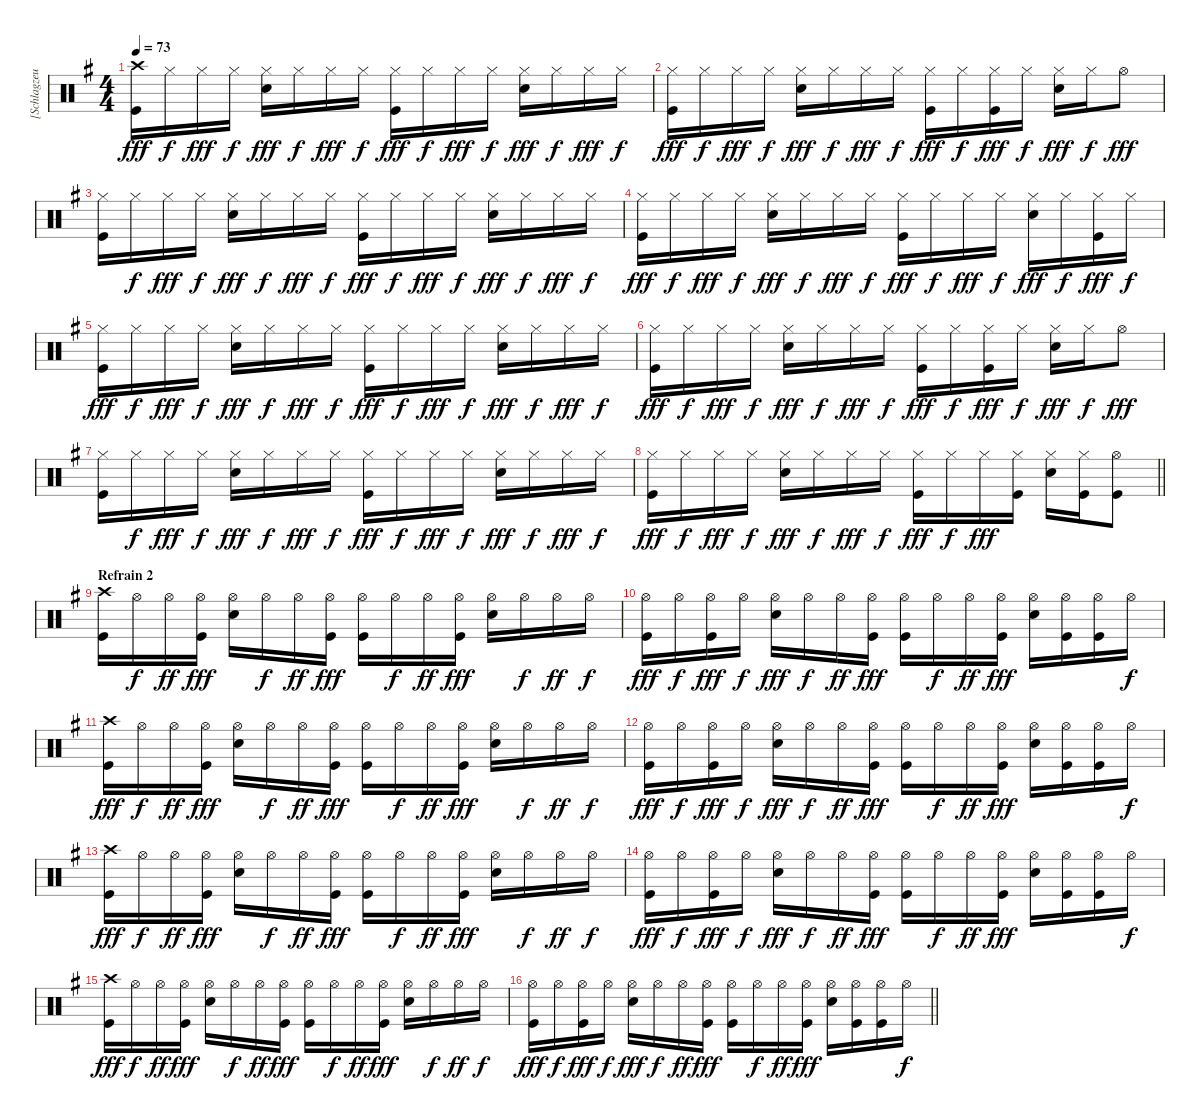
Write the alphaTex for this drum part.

\track ("[Schlagzeug]" "[Schlagzeu") {instrument percussion}
\staff {score}
\articulation defaults
\ts (4 4)
\tempo 73
\clef neutral
\ks eminor
("Crash high (hit)" "Kick (hit)").16{dy fff} "Hi-Hat (closed)".16{dy f} "Hi-Hat (closed)".16{dy fff} "Hi-Hat (closed)".16{dy f} ("Hi-Hat (closed)" "Electric Snare (hit)").16{dy fff} "Hi-Hat (closed)".16{dy f} "Hi-Hat (closed)".16{dy fff} "Hi-Hat (closed)".16{dy f} ("Hi-Hat (closed)" "Kick (hit)").16{dy fff} "Hi-Hat (closed)".16{dy f} "Hi-Hat (closed)".16{dy fff} "Hi-Hat (closed)".16{dy f} ("Hi-Hat (closed)" "Electric Snare (hit)").16{dy fff} "Hi-Hat (closed)".16{dy f} "Hi-Hat (closed)".16{dy fff} "Hi-Hat (closed)".16{dy f} |
("Hi-Hat (closed)" "Kick (hit)").16{dy fff} "Hi-Hat (closed)".16{dy f} "Hi-Hat (closed)".16{dy fff} "Hi-Hat (closed)".16{dy f} ("Hi-Hat (closed)" "Electric Snare (hit)").16{dy fff} "Hi-Hat (closed)".16{dy f} "Hi-Hat (closed)".16{dy fff} "Hi-Hat (closed)".16{dy f} ("Hi-Hat (closed)" "Kick (hit)").16{dy fff} "Hi-Hat (closed)".16{dy f} ("Hi-Hat (closed)" "Kick (hit)").16{dy fff} "Hi-Hat (closed)".16{dy f} ("Hi-Hat (closed)" "Electric Snare (hit)").16{dy fff} "Hi-Hat (closed)".16{dy f} "Hi-Hat (open)".8{dy fff} |
("Hi-Hat (closed)" "Kick (hit)").16 "Hi-Hat (closed)".16{dy f} "Hi-Hat (closed)".16{dy fff} "Hi-Hat (closed)".16{dy f} ("Hi-Hat (closed)" "Electric Snare (hit)").16{dy fff} "Hi-Hat (closed)".16{dy f} "Hi-Hat (closed)".16{dy fff} "Hi-Hat (closed)".16{dy f} ("Hi-Hat (closed)" "Kick (hit)").16{dy fff} "Hi-Hat (closed)".16{dy f} "Hi-Hat (closed)".16{dy fff} "Hi-Hat (closed)".16{dy f} ("Hi-Hat (closed)" "Electric Snare (hit)").16{dy fff} "Hi-Hat (closed)".16{dy f} "Hi-Hat (closed)".16{dy fff} "Hi-Hat (closed)".16{dy f} |
("Hi-Hat (closed)" "Kick (hit)").16{dy fff} "Hi-Hat (closed)".16{dy f} "Hi-Hat (closed)".16{dy fff} "Hi-Hat (closed)".16{dy f} ("Hi-Hat (closed)" "Electric Snare (hit)").16{dy fff} "Hi-Hat (closed)".16{dy f} "Hi-Hat (closed)".16{dy fff} "Hi-Hat (closed)".16{dy f} ("Hi-Hat (closed)" "Kick (hit)").16{dy fff} "Hi-Hat (closed)".16{dy f} "Hi-Hat (closed)".16{dy fff} "Hi-Hat (closed)".16{dy f} ("Hi-Hat (closed)" "Electric Snare (hit)").16{dy fff} "Hi-Hat (closed)".16{dy f} ("Hi-Hat (closed)" "Kick (hit)").16{dy fff} "Hi-Hat (closed)".16{dy f} |
("Hi-Hat (closed)" "Kick (hit)").16{dy fff} "Hi-Hat (closed)".16{dy f} "Hi-Hat (closed)".16{dy fff} "Hi-Hat (closed)".16{dy f} ("Hi-Hat (closed)" "Electric Snare (hit)").16{dy fff} "Hi-Hat (closed)".16{dy f} "Hi-Hat (closed)".16{dy fff} "Hi-Hat (closed)".16{dy f} ("Hi-Hat (closed)" "Kick (hit)").16{dy fff} "Hi-Hat (closed)".16{dy f} "Hi-Hat (closed)".16{dy fff} "Hi-Hat (closed)".16{dy f} ("Hi-Hat (closed)" "Electric Snare (hit)").16{dy fff} "Hi-Hat (closed)".16{dy f} "Hi-Hat (closed)".16{dy fff} "Hi-Hat (closed)".16{dy f} |
("Hi-Hat (closed)" "Kick (hit)").16{dy fff} "Hi-Hat (closed)".16{dy f} "Hi-Hat (closed)".16{dy fff} "Hi-Hat (closed)".16{dy f} ("Hi-Hat (closed)" "Electric Snare (hit)").16{dy fff} "Hi-Hat (closed)".16{dy f} "Hi-Hat (closed)".16{dy fff} "Hi-Hat (closed)".16{dy f} ("Hi-Hat (closed)" "Kick (hit)").16{dy fff} "Hi-Hat (closed)".16{dy f} ("Hi-Hat (closed)" "Kick (hit)").16{dy fff} "Hi-Hat (closed)".16{dy f} ("Hi-Hat (closed)" "Electric Snare (hit)").16{dy fff} "Hi-Hat (closed)".16{dy f} "Hi-Hat (open)".8{dy fff} |
("Hi-Hat (closed)" "Kick (hit)").16 "Hi-Hat (closed)".16{dy f} "Hi-Hat (closed)".16{dy fff} "Hi-Hat (closed)".16{dy f} ("Hi-Hat (closed)" "Electric Snare (hit)").16{dy fff} "Hi-Hat (closed)".16{dy f} "Hi-Hat (closed)".16{dy fff} "Hi-Hat (closed)".16{dy f} ("Hi-Hat (closed)" "Kick (hit)").16{dy fff} "Hi-Hat (closed)".16{dy f} "Hi-Hat (closed)".16{dy fff} "Hi-Hat (closed)".16{dy f} ("Hi-Hat (closed)" "Electric Snare (hit)").16{dy fff} "Hi-Hat (closed)".16{dy f} "Hi-Hat (closed)".16{dy fff} "Hi-Hat (closed)".16{dy f} |
\barLineRight lightlight
("Hi-Hat (closed)" "Kick (hit)").16{dy fff} "Hi-Hat (closed)".16{dy f} "Hi-Hat (closed)".16{dy fff} "Hi-Hat (closed)".16{dy f} ("Hi-Hat (closed)" "Electric Snare (hit)").16{dy fff} "Hi-Hat (closed)".16{dy f} "Hi-Hat (closed)".16{dy fff} "Hi-Hat (closed)".16{dy f} ("Hi-Hat (closed)" "Kick (hit)").16{dy fff} "Hi-Hat (closed)".16{dy f} "Hi-Hat (closed)".16{dy fff} ("Hi-Hat (closed)" "Kick (hit)").16 ("Hi-Hat (closed)" "Electric Snare (hit)").16 ("Hi-Hat (closed)" "Kick (hit)").16 ("Hi-Hat (open)" "Kick (hit)").8 |
\section ("" "Refrain 2")
("Crash high (hit)" "Kick (hit)").16 "Hi-Hat (open)".16{dy f} "Hi-Hat (open)".16{dy ff} ("Hi-Hat (open)" "Kick (hit)").16{dy fff} ("Hi-Hat (open)" "Electric Snare (hit)").16 "Hi-Hat (open)".16{dy f} "Hi-Hat (open)".16{dy ff} ("Hi-Hat (open)" "Kick (hit)").16{dy fff} ("Hi-Hat (open)" "Kick (hit)").16 "Hi-Hat (open)".16{dy f} "Hi-Hat (open)".16{dy ff} ("Hi-Hat (open)" "Kick (hit)").16{dy fff} ("Hi-Hat (open)" "Electric Snare (hit)").16 "Hi-Hat (open)".16{dy f} "Hi-Hat (open)".16{dy ff} "Hi-Hat (open)".16{dy f} |
("Hi-Hat (open)" "Kick (hit)").16{dy fff} "Hi-Hat (open)".16{dy f} ("Hi-Hat (open)" "Kick (hit)").16{dy fff} "Hi-Hat (open)".16{dy f} ("Hi-Hat (open)" "Electric Snare (hit)").16{dy fff} "Hi-Hat (open)".16{dy f} "Hi-Hat (open)".16{dy ff} ("Hi-Hat (open)" "Kick (hit)").16{dy fff} ("Hi-Hat (open)" "Kick (hit)").16 "Hi-Hat (open)".16{dy f} "Hi-Hat (open)".16{dy ff} ("Hi-Hat (open)" "Kick (hit)").16{dy fff} ("Hi-Hat (open)" "Electric Snare (hit)").16 ("Hi-Hat (open)" "Kick (hit)").16 ("Hi-Hat (open)" "Kick (hit)").16 "Hi-Hat (open)".16{dy f} |
("Crash high (hit)" "Kick (hit)").16{dy fff} "Hi-Hat (open)".16{dy f} "Hi-Hat (open)".16{dy ff} ("Hi-Hat (open)" "Kick (hit)").16{dy fff} ("Hi-Hat (open)" "Electric Snare (hit)").16 "Hi-Hat (open)".16{dy f} "Hi-Hat (open)".16{dy ff} ("Hi-Hat (open)" "Kick (hit)").16{dy fff} ("Hi-Hat (open)" "Kick (hit)").16 "Hi-Hat (open)".16{dy f} "Hi-Hat (open)".16{dy ff} ("Hi-Hat (open)" "Kick (hit)").16{dy fff} ("Hi-Hat (open)" "Electric Snare (hit)").16 "Hi-Hat (open)".16{dy f} "Hi-Hat (open)".16{dy ff} "Hi-Hat (open)".16{dy f} |
("Hi-Hat (open)" "Kick (hit)").16{dy fff} "Hi-Hat (open)".16{dy f} ("Hi-Hat (open)" "Kick (hit)").16{dy fff} "Hi-Hat (open)".16{dy f} ("Hi-Hat (open)" "Electric Snare (hit)").16{dy fff} "Hi-Hat (open)".16{dy f} "Hi-Hat (open)".16{dy ff} ("Hi-Hat (open)" "Kick (hit)").16{dy fff} ("Hi-Hat (open)" "Kick (hit)").16 "Hi-Hat (open)".16{dy f} "Hi-Hat (open)".16{dy ff} ("Hi-Hat (open)" "Kick (hit)").16{dy fff} ("Hi-Hat (open)" "Electric Snare (hit)").16 ("Hi-Hat (open)" "Kick (hit)").16 ("Hi-Hat (open)" "Kick (hit)").16 "Hi-Hat (open)".16{dy f} |
("Crash high (hit)" "Kick (hit)").16{dy fff} "Hi-Hat (open)".16{dy f} "Hi-Hat (open)".16{dy ff} ("Hi-Hat (open)" "Kick (hit)").16{dy fff} ("Hi-Hat (open)" "Electric Snare (hit)").16 "Hi-Hat (open)".16{dy f} "Hi-Hat (open)".16{dy ff} ("Hi-Hat (open)" "Kick (hit)").16{dy fff} ("Hi-Hat (open)" "Kick (hit)").16 "Hi-Hat (open)".16{dy f} "Hi-Hat (open)".16{dy ff} ("Hi-Hat (open)" "Kick (hit)").16{dy fff} ("Hi-Hat (open)" "Electric Snare (hit)").16 "Hi-Hat (open)".16{dy f} "Hi-Hat (open)".16{dy ff} "Hi-Hat (open)".16{dy f} |
("Hi-Hat (open)" "Kick (hit)").16{dy fff} "Hi-Hat (open)".16{dy f} ("Hi-Hat (open)" "Kick (hit)").16{dy fff} "Hi-Hat (open)".16{dy f} ("Hi-Hat (open)" "Electric Snare (hit)").16{dy fff} "Hi-Hat (open)".16{dy f} "Hi-Hat (open)".16{dy ff} ("Hi-Hat (open)" "Kick (hit)").16{dy fff} ("Hi-Hat (open)" "Kick (hit)").16 "Hi-Hat (open)".16{dy f} "Hi-Hat (open)".16{dy ff} ("Hi-Hat (open)" "Kick (hit)").16{dy fff} ("Hi-Hat (open)" "Electric Snare (hit)").16 ("Hi-Hat (open)" "Kick (hit)").16 ("Hi-Hat (open)" "Kick (hit)").16 "Hi-Hat (open)".16{dy f} |
("Crash high (hit)" "Kick (hit)").16{dy fff} "Hi-Hat (open)".16{dy f} "Hi-Hat (open)".16{dy ff} ("Hi-Hat (open)" "Kick (hit)").16{dy fff} ("Hi-Hat (open)" "Electric Snare (hit)").16 "Hi-Hat (open)".16{dy f} "Hi-Hat (open)".16{dy ff} ("Hi-Hat (open)" "Kick (hit)").16{dy fff} ("Hi-Hat (open)" "Kick (hit)").16 "Hi-Hat (open)".16{dy f} "Hi-Hat (open)".16{dy ff} ("Hi-Hat (open)" "Kick (hit)").16{dy fff} ("Hi-Hat (open)" "Electric Snare (hit)").16 "Hi-Hat (open)".16{dy f} "Hi-Hat (open)".16{dy ff} "Hi-Hat (open)".16{dy f} |
\barLineRight lightlight
("Hi-Hat (open)" "Kick (hit)").16{dy fff} "Hi-Hat (open)".16{dy f} ("Hi-Hat (open)" "Kick (hit)").16{dy fff} "Hi-Hat (open)".16{dy f} ("Hi-Hat (open)" "Electric Snare (hit)").16{dy fff} "Hi-Hat (open)".16{dy f} "Hi-Hat (open)".16{dy ff} ("Hi-Hat (open)" "Kick (hit)").16{dy fff} ("Hi-Hat (open)" "Kick (hit)").16 "Hi-Hat (open)".16{dy f} "Hi-Hat (open)".16{dy ff} ("Hi-Hat (open)" "Kick (hit)").16{dy fff} ("Hi-Hat (open)" "Electric Snare (hit)").16 ("Hi-Hat (open)" "Kick (hit)").16 ("Hi-Hat (open)" "Kick (hit)").16 "Hi-Hat (open)".16{dy f}
